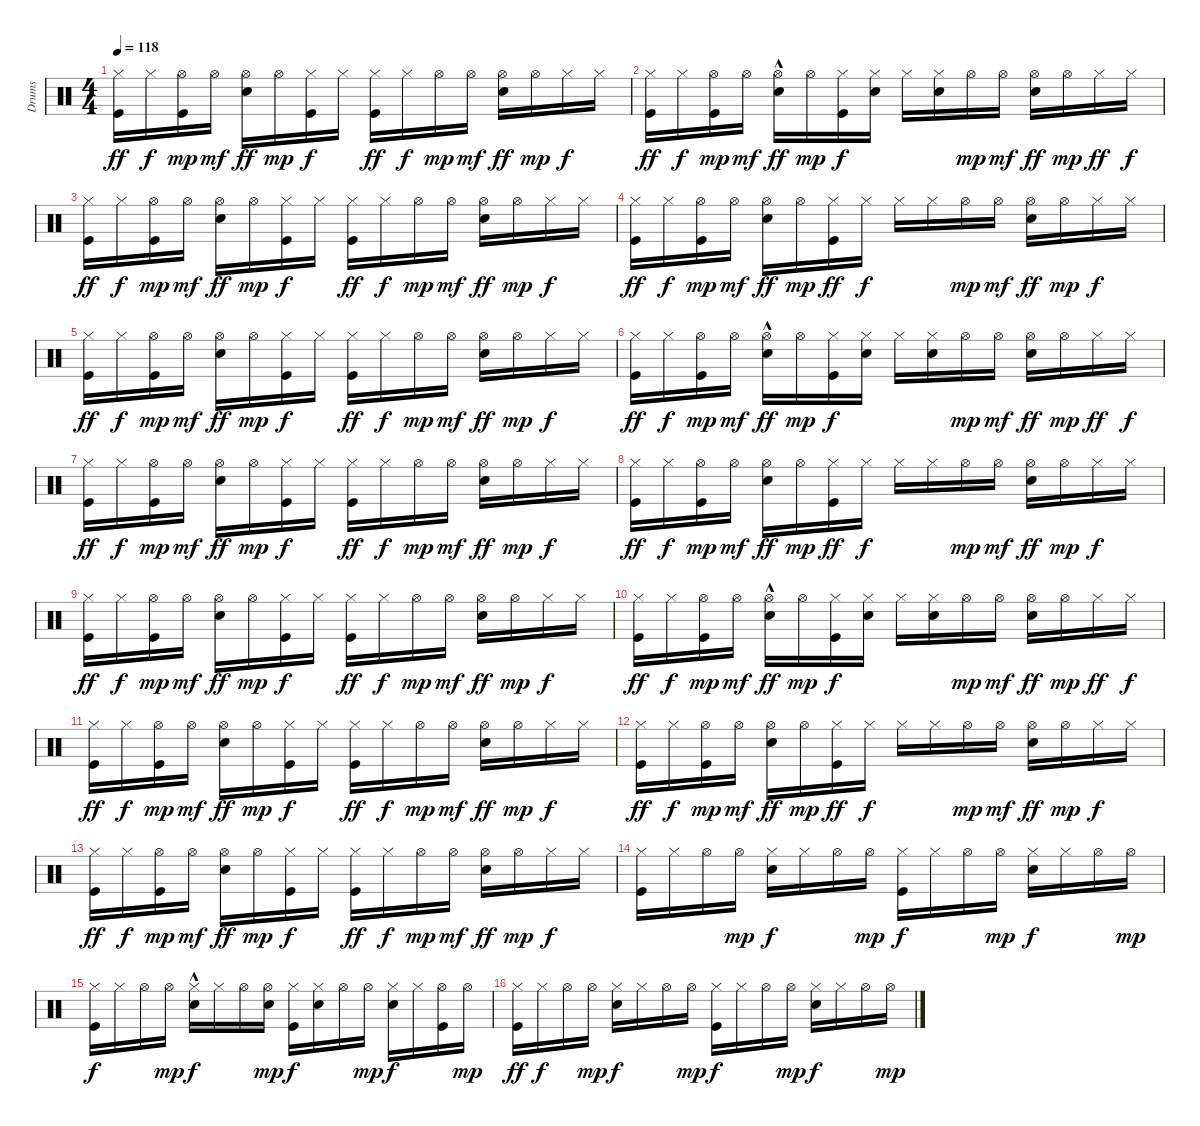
\track ("Drums" "Drums") {instrument percussion}
\staff {score}
\articulation defaults
\ts (4 4)
\tempo 118
\clef neutral
\ks c
("Kick (hit)" "Hi-Hat (closed)").16{dy ff} "Hi-Hat (closed)".16{dy f} ("Kick (hit)" "Hi-Hat (open)").16{dy mp} "Hi-Hat (open)".16{dy mf} ("Electric Snare (hit)" "Hi-Hat (open)").16{dy ff} "Hi-Hat (open)".16{dy mp} ("Kick (hit)" "Hi-Hat (closed)").16{dy f} "Hi-Hat (closed)".16 ("Kick (hit)" "Hi-Hat (closed)").16{dy ff} "Hi-Hat (closed)".16{dy f} "Hi-Hat (open)".16{dy mp} "Hi-Hat (open)".16{dy mf} ("Electric Snare (hit)" "Hi-Hat (open)").16{dy ff} "Hi-Hat (open)".16{dy mp} "Hi-Hat (closed)".16{dy f} "Hi-Hat (closed)".16 |
("Kick (hit)" "Hi-Hat (closed)").16{dy ff} "Hi-Hat (closed)".16{dy f} ("Kick (hit)" "Hi-Hat (open)").16{dy mp} "Hi-Hat (open)".16{dy mf} ("Electric Snare (hit)"{hac} "Hi-Hat (open)").16{dy ff} "Hi-Hat (open)".16{dy mp} ("Kick (hit)" "Hi-Hat (closed)").16{dy f} ("Electric Snare (hit)" "Hi-Hat (closed)").16 "Hi-Hat (closed)".16 ("Electric Snare (hit)" "Hi-Hat (closed)").16 "Hi-Hat (open)".16{dy mp} "Hi-Hat (open)".16{dy mf} ("Hi-Hat (open)" "Electric Snare (hit)").16{dy ff} "Hi-Hat (open)".16{dy mp} "Hi-Hat (closed)".16{dy ff} "Hi-Hat (closed)".16{dy f} |
("Kick (hit)" "Hi-Hat (closed)").16{dy ff} "Hi-Hat (closed)".16{dy f} ("Kick (hit)" "Hi-Hat (open)").16{dy mp} "Hi-Hat (open)".16{dy mf} ("Electric Snare (hit)" "Hi-Hat (open)").16{dy ff} "Hi-Hat (open)".16{dy mp} ("Kick (hit)" "Hi-Hat (closed)").16{dy f} "Hi-Hat (closed)".16 ("Kick (hit)" "Hi-Hat (closed)").16{dy ff} "Hi-Hat (closed)".16{dy f} "Hi-Hat (open)".16{dy mp} "Hi-Hat (open)".16{dy mf} ("Electric Snare (hit)" "Hi-Hat (open)").16{dy ff} "Hi-Hat (open)".16{dy mp} "Hi-Hat (closed)".16{dy f} "Hi-Hat (closed)".16 |
("Kick (hit)" "Hi-Hat (closed)").16{dy ff} "Hi-Hat (closed)".16{dy f} ("Kick (hit)" "Hi-Hat (open)").16{dy mp} "Hi-Hat (open)".16{dy mf} ("Electric Snare (hit)" "Hi-Hat (open)").16{dy ff} "Hi-Hat (open)".16{dy mp} ("Kick (hit)" "Hi-Hat (closed)").16{dy ff} "Hi-Hat (closed)".16{dy f} "Hi-Hat (closed)".16 "Hi-Hat (closed)".16 "Hi-Hat (open)".16{dy mp} "Hi-Hat (open)".16{dy mf} ("Electric Snare (hit)" "Hi-Hat (open)").16{dy ff} "Hi-Hat (open)".16{dy mp} "Hi-Hat (closed)".16{dy f} "Hi-Hat (closed)".16 |
("Kick (hit)" "Hi-Hat (closed)").16{dy ff} "Hi-Hat (closed)".16{dy f} ("Kick (hit)" "Hi-Hat (open)").16{dy mp} "Hi-Hat (open)".16{dy mf} ("Electric Snare (hit)" "Hi-Hat (open)").16{dy ff} "Hi-Hat (open)".16{dy mp} ("Kick (hit)" "Hi-Hat (closed)").16{dy f} "Hi-Hat (closed)".16 ("Kick (hit)" "Hi-Hat (closed)").16{dy ff} "Hi-Hat (closed)".16{dy f} "Hi-Hat (open)".16{dy mp} "Hi-Hat (open)".16{dy mf} ("Electric Snare (hit)" "Hi-Hat (open)").16{dy ff} "Hi-Hat (open)".16{dy mp} "Hi-Hat (closed)".16{dy f} "Hi-Hat (closed)".16 |
("Kick (hit)" "Hi-Hat (closed)").16{dy ff} "Hi-Hat (closed)".16{dy f} ("Kick (hit)" "Hi-Hat (open)").16{dy mp} "Hi-Hat (open)".16{dy mf} ("Electric Snare (hit)"{hac} "Hi-Hat (open)").16{dy ff} "Hi-Hat (open)".16{dy mp} ("Kick (hit)" "Hi-Hat (closed)").16{dy f} ("Electric Snare (hit)" "Hi-Hat (closed)").16 "Hi-Hat (closed)".16 ("Electric Snare (hit)" "Hi-Hat (closed)").16 "Hi-Hat (open)".16{dy mp} "Hi-Hat (open)".16{dy mf} ("Hi-Hat (open)" "Electric Snare (hit)").16{dy ff} "Hi-Hat (open)".16{dy mp} "Hi-Hat (closed)".16{dy ff} "Hi-Hat (closed)".16{dy f} |
("Kick (hit)" "Hi-Hat (closed)").16{dy ff} "Hi-Hat (closed)".16{dy f} ("Kick (hit)" "Hi-Hat (open)").16{dy mp} "Hi-Hat (open)".16{dy mf} ("Electric Snare (hit)" "Hi-Hat (open)").16{dy ff} "Hi-Hat (open)".16{dy mp} ("Kick (hit)" "Hi-Hat (closed)").16{dy f} "Hi-Hat (closed)".16 ("Kick (hit)" "Hi-Hat (closed)").16{dy ff} "Hi-Hat (closed)".16{dy f} "Hi-Hat (open)".16{dy mp} "Hi-Hat (open)".16{dy mf} ("Electric Snare (hit)" "Hi-Hat (open)").16{dy ff} "Hi-Hat (open)".16{dy mp} "Hi-Hat (closed)".16{dy f} "Hi-Hat (closed)".16 |
("Kick (hit)" "Hi-Hat (closed)").16{dy ff} "Hi-Hat (closed)".16{dy f} ("Kick (hit)" "Hi-Hat (open)").16{dy mp} "Hi-Hat (open)".16{dy mf} ("Electric Snare (hit)" "Hi-Hat (open)").16{dy ff} "Hi-Hat (open)".16{dy mp} ("Kick (hit)" "Hi-Hat (closed)").16{dy ff} "Hi-Hat (closed)".16{dy f} "Hi-Hat (closed)".16 "Hi-Hat (closed)".16 "Hi-Hat (open)".16{dy mp} "Hi-Hat (open)".16{dy mf} ("Electric Snare (hit)" "Hi-Hat (open)").16{dy ff} "Hi-Hat (open)".16{dy mp} "Hi-Hat (closed)".16{dy f} "Hi-Hat (closed)".16 |
("Kick (hit)" "Hi-Hat (closed)").16{dy ff} "Hi-Hat (closed)".16{dy f} ("Kick (hit)" "Hi-Hat (open)").16{dy mp} "Hi-Hat (open)".16{dy mf} ("Electric Snare (hit)" "Hi-Hat (open)").16{dy ff} "Hi-Hat (open)".16{dy mp} ("Kick (hit)" "Hi-Hat (closed)").16{dy f} "Hi-Hat (closed)".16 ("Kick (hit)" "Hi-Hat (closed)").16{dy ff} "Hi-Hat (closed)".16{dy f} "Hi-Hat (open)".16{dy mp} "Hi-Hat (open)".16{dy mf} ("Electric Snare (hit)" "Hi-Hat (open)").16{dy ff} "Hi-Hat (open)".16{dy mp} "Hi-Hat (closed)".16{dy f} "Hi-Hat (closed)".16 |
("Kick (hit)" "Hi-Hat (closed)").16{dy ff} "Hi-Hat (closed)".16{dy f} ("Kick (hit)" "Hi-Hat (open)").16{dy mp} "Hi-Hat (open)".16{dy mf} ("Electric Snare (hit)"{hac} "Hi-Hat (open)").16{dy ff} "Hi-Hat (open)".16{dy mp} ("Kick (hit)" "Hi-Hat (closed)").16{dy f} ("Electric Snare (hit)" "Hi-Hat (closed)").16 "Hi-Hat (closed)".16 ("Electric Snare (hit)" "Hi-Hat (closed)").16 "Hi-Hat (open)".16{dy mp} "Hi-Hat (open)".16{dy mf} ("Hi-Hat (open)" "Electric Snare (hit)").16{dy ff} "Hi-Hat (open)".16{dy mp} "Hi-Hat (closed)".16{dy ff} "Hi-Hat (closed)".16{dy f} |
("Kick (hit)" "Hi-Hat (closed)").16{dy ff} "Hi-Hat (closed)".16{dy f} ("Kick (hit)" "Hi-Hat (open)").16{dy mp} "Hi-Hat (open)".16{dy mf} ("Electric Snare (hit)" "Hi-Hat (open)").16{dy ff} "Hi-Hat (open)".16{dy mp} ("Kick (hit)" "Hi-Hat (closed)").16{dy f} "Hi-Hat (closed)".16 ("Kick (hit)" "Hi-Hat (closed)").16{dy ff} "Hi-Hat (closed)".16{dy f} "Hi-Hat (open)".16{dy mp} "Hi-Hat (open)".16{dy mf} ("Electric Snare (hit)" "Hi-Hat (open)").16{dy ff} "Hi-Hat (open)".16{dy mp} "Hi-Hat (closed)".16{dy f} "Hi-Hat (closed)".16 |
("Kick (hit)" "Hi-Hat (closed)").16{dy ff} "Hi-Hat (closed)".16{dy f} ("Kick (hit)" "Hi-Hat (open)").16{dy mp} "Hi-Hat (open)".16{dy mf} ("Electric Snare (hit)" "Hi-Hat (open)").16{dy ff} "Hi-Hat (open)".16{dy mp} ("Kick (hit)" "Hi-Hat (closed)").16{dy ff} "Hi-Hat (closed)".16{dy f} "Hi-Hat (closed)".16 "Hi-Hat (closed)".16 "Hi-Hat (open)".16{dy mp} "Hi-Hat (open)".16{dy mf} ("Electric Snare (hit)" "Hi-Hat (open)").16{dy ff} "Hi-Hat (open)".16{dy mp} "Hi-Hat (closed)".16{dy f} "Hi-Hat (closed)".16 |
("Kick (hit)" "Hi-Hat (closed)").16{dy ff} "Hi-Hat (closed)".16{dy f} ("Kick (hit)" "Hi-Hat (open)").16{dy mp} "Hi-Hat (open)".16{dy mf} ("Electric Snare (hit)" "Hi-Hat (open)").16{dy ff} "Hi-Hat (open)".16{dy mp} ("Kick (hit)" "Hi-Hat (closed)").16{dy f} "Hi-Hat (closed)".16 ("Kick (hit)" "Hi-Hat (closed)").16{dy ff} "Hi-Hat (closed)".16{dy f} "Hi-Hat (open)".16{dy mp} "Hi-Hat (open)".16{dy mf} ("Electric Snare (hit)" "Hi-Hat (open)").16{dy ff} "Hi-Hat (open)".16{dy mp} "Hi-Hat (closed)".16{dy f} "Hi-Hat (closed)".16 |
("Hi-Hat (closed)" "Kick (hit)").16 "Hi-Hat (closed)".16 "Hi-Hat (open)".16 "Hi-Hat (open)".16{dy mp} ("Hi-Hat (closed)" "Electric Snare (hit)").16{dy f} "Hi-Hat (closed)".16 "Hi-Hat (open)".16 "Hi-Hat (open)".16{dy mp} ("Kick (hit)" "Hi-Hat (closed)").16{dy f} "Hi-Hat (closed)".16 "Hi-Hat (open)".16 "Hi-Hat (open)".16{dy mp} ("Hi-Hat (closed)" "Electric Snare (hit)").16{dy f} "Hi-Hat (closed)".16 "Hi-Hat (open)".16 "Hi-Hat (open)".16{dy mp} |
("Hi-Hat (closed)" "Kick (hit)").16{dy f} "Hi-Hat (closed)".16 "Hi-Hat (open)".16 "Hi-Hat (open)".16{dy mp} ("Hi-Hat (closed)" "Electric Snare (hit)"{hac}).16{dy f} "Hi-Hat (closed)".16 "Hi-Hat (open)".16 ("Electric Snare (hit)" "Hi-Hat (open)").16{dy mp} ("Kick (hit)" "Hi-Hat (closed)").16{dy f} ("Electric Snare (hit)" "Hi-Hat (closed)").16 "Hi-Hat (open)".16 "Hi-Hat (open)".16{dy mp} ("Hi-Hat (closed)" "Electric Snare (hit)").16{dy f} "Hi-Hat (closed)".16 ("Kick (hit)" "Hi-Hat (open)").16 "Hi-Hat (open)".16{dy mp} |
("Hi-Hat (closed)" "Kick (hit)").16{dy ff} "Hi-Hat (closed)".16{dy f} "Hi-Hat (open)".16 "Hi-Hat (open)".16{dy mp} ("Hi-Hat (closed)" "Electric Snare (hit)").16{dy f} "Hi-Hat (closed)".16 "Hi-Hat (open)".16 "Hi-Hat (open)".16{dy mp} ("Kick (hit)" "Hi-Hat (closed)").16{dy f} "Hi-Hat (closed)".16 "Hi-Hat (open)".16 "Hi-Hat (open)".16{dy mp} ("Hi-Hat (closed)" "Electric Snare (hit)").16{dy f} "Hi-Hat (closed)".16 "Hi-Hat (open)".16 "Hi-Hat (open)".16{dy mp}
